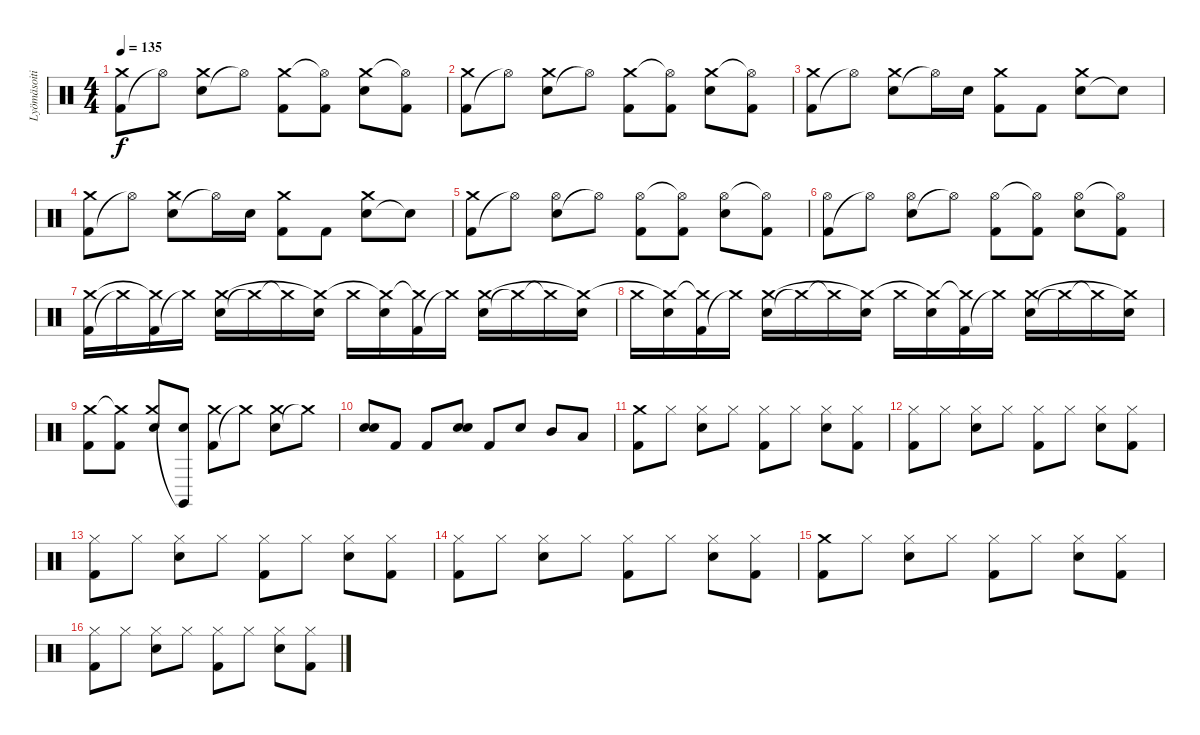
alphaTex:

\track ("Lyömäsoitin" "Lyömäsoiti") {instrument percussion}
\staff {score}
\articulation defaults
\ts (4 4)
\tempo 135
\clef neutral
\ks c
("Kick (hit) 2" "Crash medium (hit)").8{dy f} "Hi-Hat (open)"{t}.8 ("Electric Snare (hit)" "Crash medium (hit)").8 "Hi-Hat (open)"{t}.8 ("Kick (hit) 2" "Crash medium (hit)").8 ("Kick (hit) 2" "Hi-Hat (open)"{t}).8 ("Electric Snare (hit)" "Crash medium (hit)").8 ("Kick (hit) 2" "Hi-Hat (open)"{t}).8 |
("Kick (hit) 2" "Crash medium (hit)").8 "Hi-Hat (open)"{t}.8 ("Electric Snare (hit)" "Crash medium (hit)").8 "Hi-Hat (open)"{t}.8 ("Kick (hit) 2" "Crash medium (hit)").8 ("Kick (hit) 2" "Hi-Hat (open)"{t}).8 ("Electric Snare (hit)" "Crash medium (hit)").8 ("Kick (hit) 2" "Hi-Hat (open)"{t}).8 |
("Kick (hit) 2" "Crash medium (hit)").8 "Hi-Hat (open)"{t}.8 ("Electric Snare (hit)" "Crash medium (hit)").8 "Hi-Hat (open)"{t}.16 "Electric Snare (hit)".16 ("Kick (hit) 2" "Crash medium (hit)").8 "Kick (hit) 2".8 ("Electric Snare (hit)" "Crash medium (hit)").8 "Snare (hit)"{t}.8 |
("Kick (hit) 2" "Crash medium (hit)").8 "Hi-Hat (open)"{t}.8 ("Electric Snare (hit)" "Crash medium (hit)").8 "Hi-Hat (open)"{t}.16 "Electric Snare (hit)".16 ("Kick (hit) 2" "Crash medium (hit)").8 "Kick (hit) 2".8 ("Electric Snare (hit)" "Crash medium (hit)").8 "Snare (hit)"{t}.8 |
("Kick (hit) 2" "Crash medium (hit)").8 "Hi-Hat (open)"{t}.8 ("Electric Snare (hit)" "Hi-Hat (open)").8 "Hi-Hat (open)"{t}.8 ("Kick (hit) 2" "Hi-Hat (open)").8 ("Kick (hit) 2" "Hi-Hat (open)"{t}).8 ("Electric Snare (hit)" "Hi-Hat (open)").8 ("Kick (hit) 2" "Hi-Hat (open)"{t}).8 |
("Kick (hit) 2" "Hi-Hat (open)").8 "Hi-Hat (open)"{t}.8 ("Electric Snare (hit)" "Hi-Hat (open)").8 "Hi-Hat (open)"{t}.8 ("Kick (hit) 2" "Hi-Hat (open)").8 ("Kick (hit) 2" "Hi-Hat (open)"{t}).8 ("Electric Snare (hit)" "Hi-Hat (open)").8 ("Kick (hit) 2" "Hi-Hat (open)"{t}).8 |
("Kick (hit) 2" "Crash medium (hit)").16 "Crash medium (hit)"{t}.16 ("Kick (hit) 2" "Crash medium (hit)"{t}).16 "Crash medium (hit)"{t}.16 ("Electric Snare (hit)" "Crash medium (hit)").16 "Crash medium (hit)"{t}.16 "Crash medium (hit)"{t}.16 ("Electric Snare (hit)" "Crash medium (hit)"{t}).16 "Crash medium (hit)".16 ("Electric Snare (hit)" "Crash medium (hit)"{t}).16 ("Kick (hit) 2" "Crash medium (hit)"{t}).16 "Crash medium (hit)"{t}.16 ("Electric Snare (hit)" "Crash medium (hit)").16 "Crash medium (hit)"{t}.16 "Crash medium (hit)"{t}.16 ("Electric Snare (hit)" "Crash medium (hit)"{t}).16 |
"Crash medium (hit)".16 ("Electric Snare (hit)" "Crash medium (hit)"{t}).16 ("Kick (hit) 2" "Crash medium (hit)"{t}).16 "Crash medium (hit)"{t}.16 ("Electric Snare (hit)" "Crash medium (hit)").16 "Crash medium (hit)"{t}.16 "Crash medium (hit)"{t}.16 ("Electric Snare (hit)" "Crash medium (hit)"{t}).16 "Crash medium (hit)".16 ("Electric Snare (hit)" "Crash medium (hit)"{t}).16 ("Kick (hit) 2" "Crash medium (hit)"{t}).16 "Crash medium (hit)"{t}.16 ("Electric Snare (hit)" "Crash medium (hit)").16 "Crash medium (hit)"{t}.16 "Crash medium (hit)"{t}.16 ("Electric Snare (hit)" "Crash medium (hit)"{t}).16 |
("Kick (hit) 2" "Crash medium (hit)").8 ("Kick (hit) 2" "Crash medium (hit)"{t}).8 ("Electric Snare (hit)" "Crash medium (hit)").8 ("Electric Snare (hit)" "Claves (hit)"{t}).8 ("Kick (hit) 2" "Crash medium (hit)").8 "Crash medium (hit)"{t}.8 ("Electric Snare (hit)" "Crash medium (hit)").8 "Crash medium (hit)"{t}.8 |
("Electric Snare (hit)" "Electric Snare (hit)").8 "Kick (hit) 2".8 "Kick (hit) 2".8 ("Electric Snare (hit)" "Electric Snare (hit)").8 "Kick (hit) 2".8 "Electric Snare (hit)".8 "Mid Tom (hit)".8 "Low Tom (hit)".8 |
("Kick (hit) 2" "Crash medium (hit)").8 "Hi-Hat (closed)".8 ("Electric Snare (hit)" "Hi-Hat (closed)").8 "Hi-Hat (closed)".8 ("Kick (hit) 2" "Hi-Hat (closed)").8 "Hi-Hat (closed)".8 ("Electric Snare (hit)" "Hi-Hat (closed)").8 ("Kick (hit) 2" "Hi-Hat (closed)").8 |
("Kick (hit) 2" "Hi-Hat (closed)").8 "Hi-Hat (closed)".8 ("Electric Snare (hit)" "Hi-Hat (closed)").8 "Hi-Hat (closed)".8 ("Kick (hit) 2" "Hi-Hat (closed)").8 "Hi-Hat (closed)".8 ("Electric Snare (hit)" "Hi-Hat (closed)").8 ("Kick (hit) 2" "Hi-Hat (closed)").8 |
("Kick (hit) 2" "Hi-Hat (closed)").8 "Hi-Hat (closed)".8 ("Electric Snare (hit)" "Hi-Hat (closed)").8 "Hi-Hat (closed)".8 ("Kick (hit) 2" "Hi-Hat (closed)").8 "Hi-Hat (closed)".8 ("Electric Snare (hit)" "Hi-Hat (closed)").8 ("Kick (hit) 2" "Hi-Hat (closed)").8 |
("Kick (hit) 2" "Hi-Hat (closed)").8 "Hi-Hat (closed)".8 ("Electric Snare (hit)" "Hi-Hat (closed)").8 "Hi-Hat (closed)".8 ("Kick (hit) 2" "Hi-Hat (closed)").8 "Hi-Hat (closed)".8 ("Electric Snare (hit)" "Hi-Hat (closed)").8 ("Kick (hit) 2" "Hi-Hat (closed)").8 |
("Kick (hit) 2" "Crash medium (hit)").8 "Hi-Hat (closed)".8 ("Electric Snare (hit)" "Hi-Hat (closed)").8 "Hi-Hat (closed)".8 ("Kick (hit) 2" "Hi-Hat (closed)").8 "Hi-Hat (closed)".8 ("Electric Snare (hit)" "Hi-Hat (closed)").8 ("Kick (hit) 2" "Hi-Hat (closed)").8 |
("Kick (hit) 2" "Hi-Hat (closed)").8 "Hi-Hat (closed)".8 ("Electric Snare (hit)" "Hi-Hat (closed)").8 "Hi-Hat (closed)".8 ("Kick (hit) 2" "Hi-Hat (closed)").8 "Hi-Hat (closed)".8 ("Electric Snare (hit)" "Hi-Hat (closed)").8 ("Kick (hit) 2" "Hi-Hat (closed)").8
